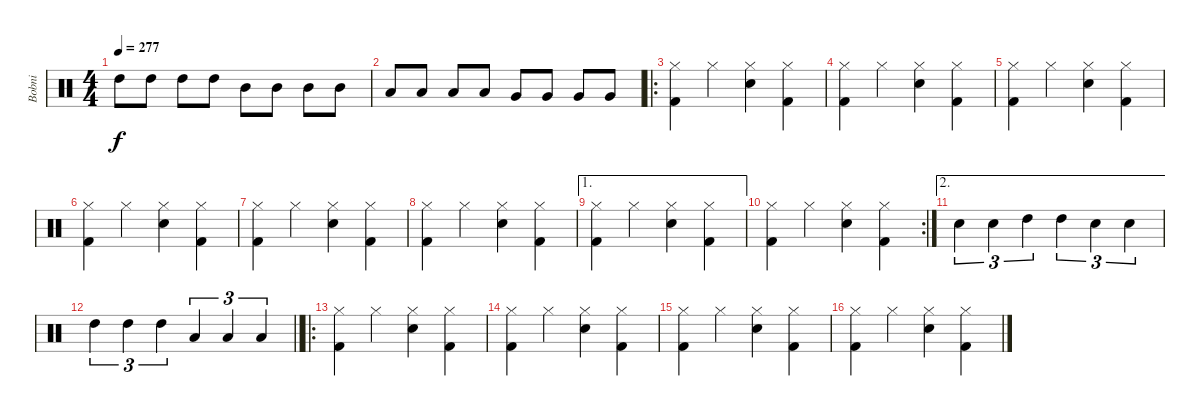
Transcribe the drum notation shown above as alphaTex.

\track ("Bobni" "Bobni") {instrument percussion}
\staff {score}
\articulation defaults
\ts (4 4)
\tempo 277
\clef neutral
\ks c "High Tom (hit)".8{dy f} "High Tom (hit)".8 "High Tom (hit)".8 "High Tom (hit)".8 "Mid Tom (hit)".8 "Mid Tom (hit)".8 "Mid Tom (hit)".8 "Mid Tom (hit)".8
|
"Low Tom (hit)".8 "Low Tom (hit)".8 "Low Tom (hit)".8 "Low Tom (hit)".8 "Very Low Tom (hit)".8 "Very Low Tom (hit)".8 "Very Low Tom (hit)".8 "Very Low Tom (hit)".8 |
\ro
("Hi-Hat (closed)" "Kick (hit) 2").4 "Hi-Hat (closed)".4 ("Hi-Hat (closed)" "Snare (hit) 2").4 ("Hi-Hat (closed)" "Kick (hit) 2").4 |
("Hi-Hat (closed)" "Kick (hit) 2").4 "Hi-Hat (closed)".4 ("Hi-Hat (closed)" "Snare (hit) 2").4 ("Hi-Hat (closed)" "Kick (hit) 2").4 |
("Hi-Hat (closed)" "Kick (hit) 2").4 "Hi-Hat (closed)".4 ("Hi-Hat (closed)" "Snare (hit) 2").4 ("Hi-Hat (closed)" "Kick (hit) 2").4 |
("Hi-Hat (closed)" "Kick (hit) 2").4 "Hi-Hat (closed)".4 ("Hi-Hat (closed)" "Snare (hit) 2").4 ("Hi-Hat (closed)" "Kick (hit) 2").4 |
("Hi-Hat (closed)" "Kick (hit) 2").4 "Hi-Hat (closed)".4 ("Hi-Hat (closed)" "Snare (hit) 2").4 ("Hi-Hat (closed)" "Kick (hit) 2").4 |
("Hi-Hat (closed)" "Kick (hit) 2").4 "Hi-Hat (closed)".4 ("Hi-Hat (closed)" "Snare (hit) 2").4 ("Hi-Hat (closed)" "Kick (hit) 2").4 |
\ae 1
("Hi-Hat (closed)" "Kick (hit) 2").4 "Hi-Hat (closed)".4 ("Hi-Hat (closed)" "Snare (hit) 2").4 ("Hi-Hat (closed)" "Kick (hit) 2").4 |
\rc 2
("Hi-Hat (closed)" "Kick (hit) 2").4 "Hi-Hat (closed)".4 ("Hi-Hat (closed)" "Snare (hit) 2").4 ("Hi-Hat (closed)" "Kick (hit) 2").4 |
\ae 2 "Snare (hit) 2".4{tu (3 2)} "Snare (hit) 2".4{tu (3 2)} "High Tom (hit)".4{tu (3 2)} "High Tom (hit)".4{tu (3 2)} "Snare (hit) 2".4{tu (3 2)} "Snare (hit) 2".4{tu (3 2)}
|
\barLineRight lightlight "High Tom (hit)".4{tu (3 2)} "High Tom (hit)".4{tu (3 2)} "High Tom (hit)".4{tu (3 2)} "Low Tom (hit)".4{tu (3 2)} "Low Tom (hit)".4{tu (3 2)} "Low Tom (hit)".4{tu (3 2)}
|
\ro
("Hi-Hat (closed)" "Kick (hit) 2").4 "Hi-Hat (closed)".4 ("Hi-Hat (closed)" "Snare (hit) 2").4 ("Hi-Hat (closed)" "Kick (hit) 2").4 |
("Hi-Hat (closed)" "Kick (hit) 2").4 "Hi-Hat (closed)".4 ("Hi-Hat (closed)" "Snare (hit) 2").4 ("Hi-Hat (closed)" "Kick (hit) 2").4 |
("Hi-Hat (closed)" "Kick (hit) 2").4 "Hi-Hat (closed)".4 ("Hi-Hat (closed)" "Snare (hit) 2").4 ("Hi-Hat (closed)" "Kick (hit) 2").4 |
("Hi-Hat (closed)" "Kick (hit) 2").4 "Hi-Hat (closed)".4 ("Hi-Hat (closed)" "Snare (hit) 2").4 ("Hi-Hat (closed)" "Kick (hit) 2").4
